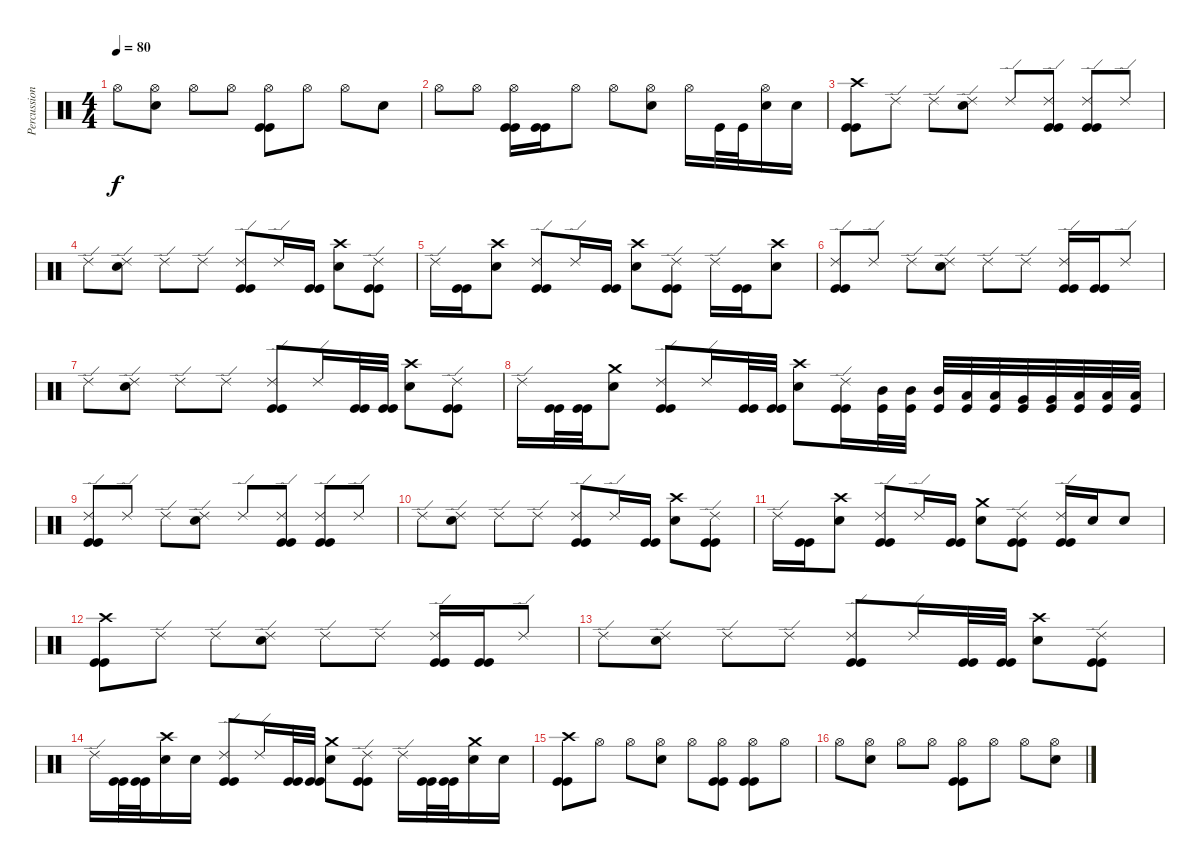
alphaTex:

\track ("Percussions" "Percussion") {instrument percussion}
\staff {score}
\articulation defaults
\ts (4 4)
\tempo 80
\clef neutral
\ks c "Hi-Hat (open)".8{dy f}
("Electric Snare (hit)" "Hi-Hat (open)").8 "Hi-Hat (open)".8 "Hi-Hat (open)".8 ("Kick (hit)" "Kick (hit)" "Hi-Hat (open)").8 "Hi-Hat (open)".8 "Hi-Hat (open)".8 "Electric Snare (hit)".8 |
"Hi-Hat (open)".8 "Hi-Hat (open)".8 ("Kick (hit)" "Kick (hit)" "Hi-Hat (open)").16 ("Kick (hit)" "Kick (hit)").16 "Hi-Hat (open)".8 "Hi-Hat (open)".8 ("Electric Snare (hit)" "Hi-Hat (open)").8 "Hi-Hat (open)".16 "Kick (hit)".32 "Kick (hit)".32 ("Electric Snare (hit)" "Hi-Hat (open)").16 "Electric Snare (hit)".16 |
("Kick (hit)" "Kick (hit)" "Crash high (hit)").8 "Ride (edge) 2".8 "Ride (edge) 2".8 ("Electric Snare (hit)" "Ride (edge) 2").8 "Ride (edge) 2".8 ("Kick (hit)" "Kick (hit)" "Ride (edge) 2").8 ("Kick (hit)" "Kick (hit)" "Ride (edge) 2").8 "Ride (edge) 2".8 |
"Ride (edge) 2".8 ("Electric Snare (hit)" "Ride (edge) 2").8 "Ride (edge) 2".8 "Ride (edge) 2".8 ("Kick (hit)" "Kick (hit)" "Ride (edge) 2").8 "Ride (edge) 2".16 ("Kick (hit)" "Kick (hit)").16 ("Electric Snare (hit)" "Crash high (hit)").8 ("Kick (hit)" "Kick (hit)" "Ride (edge) 2").8 |
"Ride (edge) 2".16 ("Kick (hit)" "Kick (hit)").16 ("Electric Snare (hit)" "Crash high (hit)").8 ("Kick (hit)" "Kick (hit)" "Ride (edge) 2").8 "Ride (edge) 2".16 ("Kick (hit)" "Kick (hit)").16 ("Electric Snare (hit)" "Crash high (hit)").8 ("Kick (hit)" "Kick (hit)" "Ride (edge) 2").8 "Ride (edge) 2".16 ("Kick (hit)" "Kick (hit)").16 ("Electric Snare (hit)" "Crash high (hit)").8 |
("Kick (hit)" "Kick (hit)" "Ride (edge) 2").8 "Ride (edge) 2".8 "Ride (edge) 2".8 ("Electric Snare (hit)" "Ride (edge) 2").8 "Ride (edge) 2".8 "Ride (edge) 2".8 ("Kick (hit)" "Kick (hit)" "Ride (edge) 2").16 ("Kick (hit)" "Kick (hit)").16 "Ride (edge) 2".8 |
"Ride (edge) 2".8 ("Electric Snare (hit)" "Ride (edge) 2").8 "Ride (edge) 2".8 "Ride (edge) 2".8 ("Kick (hit)" "Kick (hit)" "Ride (edge) 2").8 "Ride (edge) 2".16 ("Kick (hit)" "Kick (hit)").32 ("Kick (hit)" "Kick (hit)").32 ("Electric Snare (hit)" "Crash high (hit)").8 ("Kick (hit)" "Kick (hit)" "Ride (edge) 2").8 |
"Ride (edge) 2".16 ("Kick (hit)" "Kick (hit)").32 ("Kick (hit)" "Kick (hit)").32 ("Electric Snare (hit)" "Crash medium (hit)").8 ("Kick (hit)" "Kick (hit)" "Ride (edge) 2").8 "Ride (edge) 2".16 ("Kick (hit)" "Kick (hit)").32 ("Kick (hit)" "Kick (hit)").32 ("Electric Snare (hit)" "Crash high (hit)").8 ("Kick (hit)" "Kick (hit)" "Ride (edge) 2").16 ("Kick (hit)" "Mid Tom (hit)").32 ("Kick (hit)" "Mid Tom (hit)").32 ("Kick (hit)" "Mid Tom (hit)").32 ("Kick (hit)" "Low Tom (hit)").32 ("Kick (hit)" "Low Tom (hit)").32 ("Kick (hit)" "Very Low Tom (hit)").32 ("Kick (hit)" "Very Low Tom (hit)").32 ("Kick (hit)" "Low Floor Tom (hit)").32 ("Kick (hit)" "Low Floor Tom (hit)").32 ("Kick (hit)" "Low Floor Tom (hit)").32 |
("Kick (hit)" "Kick (hit)" "Ride (edge) 2").8 "Ride (edge) 2".8 "Ride (edge) 2".8 ("Electric Snare (hit)" "Ride (edge) 2").8 "Ride (edge) 2".8 ("Kick (hit)" "Kick (hit)" "Ride (edge) 2").8 ("Kick (hit)" "Kick (hit)" "Ride (edge) 2").8 "Ride (edge) 2".8 |
"Ride (edge) 2".8 ("Electric Snare (hit)" "Ride (edge) 2").8 "Ride (edge) 2".8 "Ride (edge) 2".8 ("Kick (hit)" "Kick (hit)" "Ride (edge) 2").8 "Ride (edge) 2".16 ("Kick (hit)" "Kick (hit)").16 ("Electric Snare (hit)" "Crash high (hit)").8 ("Kick (hit)" "Kick (hit)" "Ride (edge) 2").8 |
"Ride (edge) 2".16 ("Kick (hit)" "Kick (hit)").16 ("Electric Snare (hit)" "Crash high (hit)").8 ("Kick (hit)" "Kick (hit)" "Ride (edge) 2").8 "Ride (edge) 2".16 ("Kick (hit)" "Kick (hit)").16 ("Electric Snare (hit)" "Crash medium (hit)").8 ("Kick (hit)" "Kick (hit)" "Ride (edge) 2").8 ("Kick (hit)" "Kick (hit)" "Ride (edge) 2").16 "Electric Snare (hit)".16 "Electric Snare (hit)".8 |
("Kick (hit)" "Kick (hit)" "Crash high (hit)").8 "Ride (edge) 2".8 "Ride (edge) 2".8 ("Electric Snare (hit)" "Ride (edge) 2").8 "Ride (edge) 2".8 "Ride (edge) 2".8 ("Kick (hit)" "Kick (hit)" "Ride (edge) 2").16 ("Kick (hit)" "Kick (hit)").16 "Ride (edge) 2".8 |
"Ride (edge) 2".8 ("Electric Snare (hit)" "Ride (edge) 2").8 "Ride (edge) 2".8 "Ride (edge) 2".8 ("Kick (hit)" "Kick (hit)" "Ride (edge) 2").8 "Ride (edge) 2".16 ("Kick (hit)" "Kick (hit)").32 ("Kick (hit)" "Kick (hit)").32 ("Electric Snare (hit)" "Crash high (hit)").8 ("Kick (hit)" "Kick (hit)" "Ride (edge) 2").8 |
"Ride (edge) 2".16 ("Kick (hit)" "Kick (hit)").32 ("Kick (hit)" "Kick (hit)").32 ("Electric Snare (hit)" "Crash high (hit)").16 "Electric Snare (hit)".16 ("Kick (hit)" "Kick (hit)" "Ride (edge) 2").8 "Ride (edge) 2".16 ("Kick (hit)" "Kick (hit)").32 ("Kick (hit)" "Kick (hit)").32 ("Electric Snare (hit)" "Crash medium (hit)").8 ("Kick (hit)" "Kick (hit)" "Ride (edge) 2").8 "Ride (edge) 2".16 ("Kick (hit)" "Kick (hit)").32 ("Kick (hit)" "Kick (hit)").32 ("Electric Snare (hit)" "Crash medium (hit)").16 "Electric Snare (hit)".16 |
("Kick (hit)" "Kick (hit)" "Crash high (hit)").8 "Hi-Hat (open)".8 "Hi-Hat (open)".8 ("Electric Snare (hit)" "Hi-Hat (open)").8 "Hi-Hat (open)".8 ("Kick (hit)" "Kick (hit)" "Hi-Hat (open)").8 ("Kick (hit)" "Kick (hit)" "Hi-Hat (open)").8 "Hi-Hat (open)".8 |
"Hi-Hat (open)".8 ("Electric Snare (hit)" "Hi-Hat (open)").8 "Hi-Hat (open)".8 "Hi-Hat (open)".8 ("Kick (hit)" "Kick (hit)" "Hi-Hat (open)").8 "Hi-Hat (open)".8 "Hi-Hat (open)".8 ("Electric Snare (hit)" "Hi-Hat (open)").8
